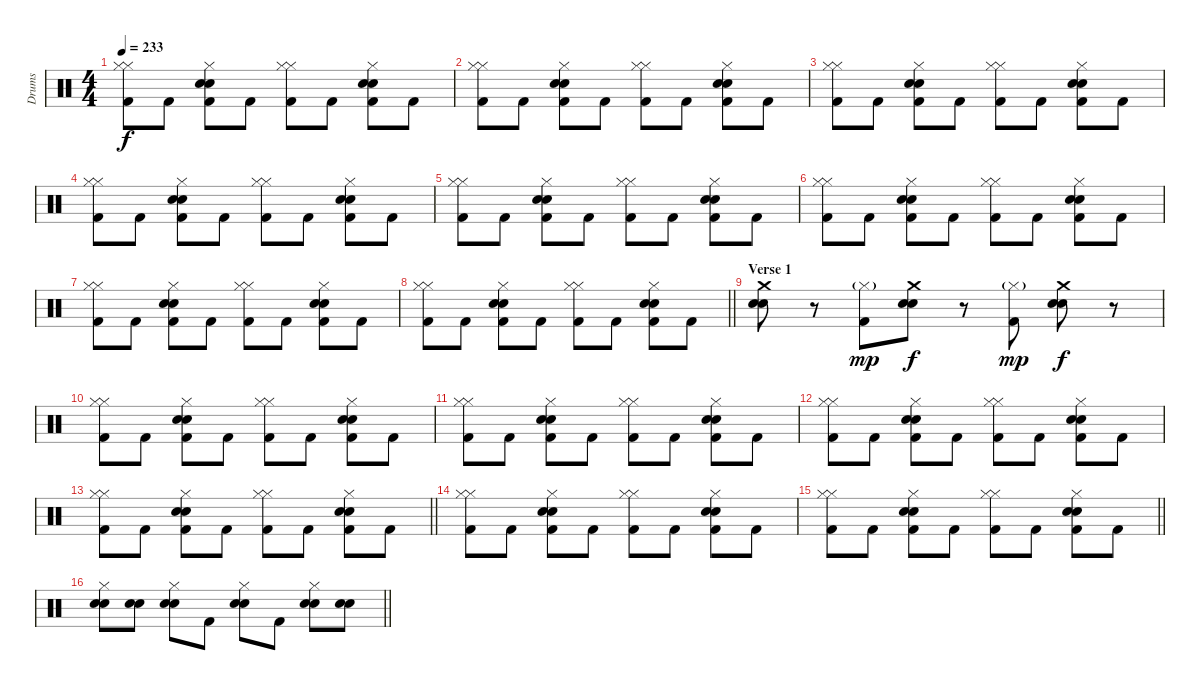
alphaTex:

\track ("Drums" "Drums") {instrument percussion}
\staff {score}
\articulation defaults
\ts (4 4)
\tempo 233
\clef neutral
\ks c
("Hi-Hat (closed)" "Hi-Hat (closed)" "Kick (hit) 2").8{dy f} "Kick (hit) 2".8 ("Hi-Hat (closed)" "Snare (hit) 2" "Electric Snare (hit)" "Kick (hit) 2").8 "Kick (hit) 2".8 ("Hi-Hat (closed)" "Hi-Hat (closed)" "Kick (hit) 2").8 "Kick (hit) 2".8 ("Hi-Hat (closed)" "Snare (hit) 2" "Electric Snare (hit)" "Kick (hit) 2").8 "Kick (hit) 2".8 |
("Hi-Hat (closed)" "Hi-Hat (closed)" "Kick (hit) 2").8 "Kick (hit) 2".8 ("Hi-Hat (closed)" "Snare (hit) 2" "Electric Snare (hit)" "Kick (hit) 2").8 "Kick (hit) 2".8 ("Hi-Hat (closed)" "Hi-Hat (closed)" "Kick (hit) 2").8 "Kick (hit) 2".8 ("Hi-Hat (closed)" "Snare (hit) 2" "Electric Snare (hit)" "Kick (hit) 2").8 "Kick (hit) 2".8 |
("Hi-Hat (closed)" "Hi-Hat (closed)" "Kick (hit) 2").8 "Kick (hit) 2".8 ("Hi-Hat (closed)" "Snare (hit) 2" "Electric Snare (hit)" "Kick (hit) 2").8 "Kick (hit) 2".8 ("Hi-Hat (closed)" "Hi-Hat (closed)" "Kick (hit) 2").8 "Kick (hit) 2".8 ("Hi-Hat (closed)" "Snare (hit) 2" "Electric Snare (hit)" "Kick (hit) 2").8 "Kick (hit) 2".8 |
("Hi-Hat (closed)" "Hi-Hat (closed)" "Kick (hit) 2").8 "Kick (hit) 2".8 ("Hi-Hat (closed)" "Snare (hit) 2" "Electric Snare (hit)" "Kick (hit) 2").8 "Kick (hit) 2".8 ("Hi-Hat (closed)" "Hi-Hat (closed)" "Kick (hit) 2").8 "Kick (hit) 2".8 ("Hi-Hat (closed)" "Snare (hit) 2" "Electric Snare (hit)" "Kick (hit) 2").8 "Kick (hit) 2".8 |
("Hi-Hat (closed)" "Hi-Hat (closed)" "Kick (hit) 2").8 "Kick (hit) 2".8 ("Hi-Hat (closed)" "Snare (hit) 2" "Electric Snare (hit)" "Kick (hit) 2").8 "Kick (hit) 2".8 ("Hi-Hat (closed)" "Hi-Hat (closed)" "Kick (hit) 2").8 "Kick (hit) 2".8 ("Hi-Hat (closed)" "Snare (hit) 2" "Electric Snare (hit)" "Kick (hit) 2").8 "Kick (hit) 2".8 |
("Hi-Hat (closed)" "Hi-Hat (closed)" "Kick (hit) 2").8 "Kick (hit) 2".8 ("Hi-Hat (closed)" "Snare (hit) 2" "Electric Snare (hit)" "Kick (hit) 2").8 "Kick (hit) 2".8 ("Hi-Hat (closed)" "Hi-Hat (closed)" "Kick (hit) 2").8 "Kick (hit) 2".8 ("Hi-Hat (closed)" "Snare (hit) 2" "Electric Snare (hit)" "Kick (hit) 2").8 "Kick (hit) 2".8 |
("Hi-Hat (closed)" "Hi-Hat (closed)" "Kick (hit) 2").8 "Kick (hit) 2".8 ("Hi-Hat (closed)" "Snare (hit) 2" "Electric Snare (hit)" "Kick (hit) 2").8 "Kick (hit) 2".8 ("Hi-Hat (closed)" "Hi-Hat (closed)" "Kick (hit) 2").8 "Kick (hit) 2".8 ("Hi-Hat (closed)" "Snare (hit) 2" "Electric Snare (hit)" "Kick (hit) 2").8 "Kick (hit) 2".8 |
\barLineRight lightlight
("Hi-Hat (closed)" "Hi-Hat (closed)" "Kick (hit) 2").8 "Kick (hit) 2".8 ("Hi-Hat (closed)" "Snare (hit) 2" "Electric Snare (hit)" "Kick (hit) 2").8 "Kick (hit) 2".8 ("Hi-Hat (closed)" "Hi-Hat (closed)" "Kick (hit) 2").8 "Kick (hit) 2".8 ("Hi-Hat (closed)" "Snare (hit) 2" "Electric Snare (hit)" "Kick (hit) 2").8 "Kick (hit) 2".8 |
\section ("" "Verse 1")
("Crash medium (hit)" "Snare (hit) 2" "Electric Snare (hit)").8 r.8 ("Hi-Hat (closed)"{g} "Kick (hit) 2").8{dy mp} ("Crash medium (hit)" "Snare (hit) 2" "Electric Snare (hit)").8{dy f} r.8 ("Hi-Hat (closed)"{g} "Kick (hit) 2").8{dy mp} ("Crash medium (hit)" "Snare (hit) 2" "Electric Snare (hit)").8{dy f} r.8 |
("Hi-Hat (closed)" "Hi-Hat (closed)" "Kick (hit) 2").8 "Kick (hit) 2".8 ("Hi-Hat (closed)" "Snare (hit) 2" "Electric Snare (hit)" "Kick (hit) 2").8 "Kick (hit) 2".8 ("Hi-Hat (closed)" "Hi-Hat (closed)" "Kick (hit) 2").8 "Kick (hit) 2".8 ("Hi-Hat (closed)" "Snare (hit) 2" "Electric Snare (hit)" "Kick (hit) 2").8 "Kick (hit) 2".8 |
("Hi-Hat (closed)" "Hi-Hat (closed)" "Kick (hit) 2").8 "Kick (hit) 2".8 ("Hi-Hat (closed)" "Snare (hit) 2" "Electric Snare (hit)" "Kick (hit) 2").8 "Kick (hit) 2".8 ("Hi-Hat (closed)" "Hi-Hat (closed)" "Kick (hit) 2").8 "Kick (hit) 2".8 ("Hi-Hat (closed)" "Snare (hit) 2" "Electric Snare (hit)" "Kick (hit) 2").8 "Kick (hit) 2".8 |
("Hi-Hat (closed)" "Hi-Hat (closed)" "Kick (hit) 2").8 "Kick (hit) 2".8 ("Hi-Hat (closed)" "Snare (hit) 2" "Electric Snare (hit)" "Kick (hit) 2").8 "Kick (hit) 2".8 ("Hi-Hat (closed)" "Hi-Hat (closed)" "Kick (hit) 2").8 "Kick (hit) 2".8 ("Hi-Hat (closed)" "Snare (hit) 2" "Electric Snare (hit)" "Kick (hit) 2").8 "Kick (hit) 2".8 |
\barLineRight lightlight
("Hi-Hat (closed)" "Hi-Hat (closed)" "Kick (hit) 2").8 "Kick (hit) 2".8 ("Hi-Hat (closed)" "Snare (hit) 2" "Electric Snare (hit)" "Kick (hit) 2").8 "Kick (hit) 2".8 ("Hi-Hat (closed)" "Hi-Hat (closed)" "Kick (hit) 2").8 "Kick (hit) 2".8 ("Hi-Hat (closed)" "Snare (hit) 2" "Electric Snare (hit)" "Kick (hit) 2").8 "Kick (hit) 2".8 |
("Hi-Hat (closed)" "Hi-Hat (closed)" "Kick (hit) 2").8 "Kick (hit) 2".8 ("Hi-Hat (closed)" "Snare (hit) 2" "Electric Snare (hit)" "Kick (hit) 2").8 "Kick (hit) 2".8 ("Hi-Hat (closed)" "Hi-Hat (closed)" "Kick (hit) 2").8 "Kick (hit) 2".8 ("Hi-Hat (closed)" "Snare (hit) 2" "Electric Snare (hit)" "Kick (hit) 2").8 "Kick (hit) 2".8 |
\barLineRight lightlight
("Hi-Hat (closed)" "Hi-Hat (closed)" "Kick (hit) 2").8 "Kick (hit) 2".8 ("Hi-Hat (closed)" "Snare (hit) 2" "Electric Snare (hit)" "Kick (hit) 2").8 "Kick (hit) 2".8 ("Hi-Hat (closed)" "Hi-Hat (closed)" "Kick (hit) 2").8 "Kick (hit) 2".8 ("Hi-Hat (closed)" "Snare (hit) 2" "Electric Snare (hit)" "Kick (hit) 2").8 "Kick (hit) 2".8 |
\barLineRight lightlight
("Hi-Hat (closed)" "Snare (hit) 2" "Electric Snare (hit)").8 ("Snare (hit) 2" "Electric Snare (hit)").8 ("Hi-Hat (closed)" "Snare (hit) 2" "Electric Snare (hit)").8 "Kick (hit) 2".8 ("Hi-Hat (closed)" "Snare (hit) 2" "Electric Snare (hit)").8 "Kick (hit) 2".8 ("Hi-Hat (closed)" "Snare (hit) 2" "Electric Snare (hit)").8 ("Snare (hit) 2" "Electric Snare (hit)").8
